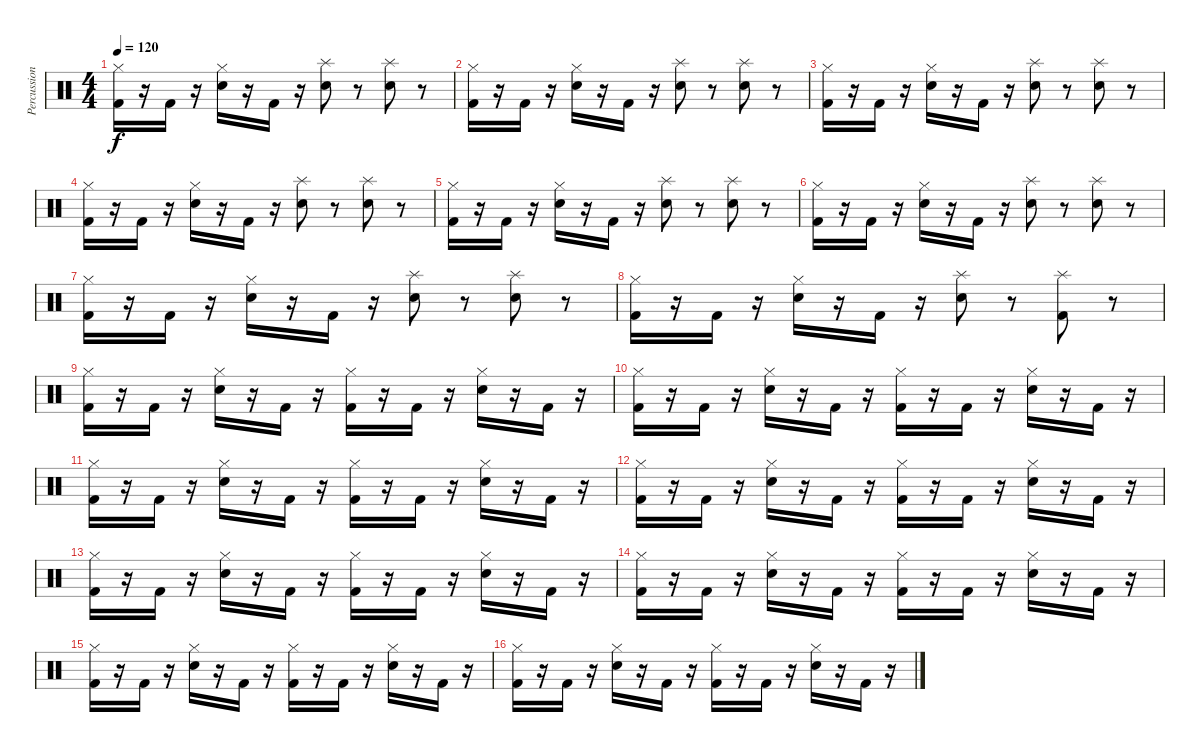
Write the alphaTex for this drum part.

\track ("Percussion" "Percussion") {instrument percussion}
\staff {score}
\articulation defaults
\ts (4 4)
\tempo 120
\clef neutral
\ks c
("Kick (hit) 2" "Hi-Hat (closed)").16{dy f} r.16 "Kick (hit) 2".16 r.16 ("Snare (hit) 2" "Hi-Hat (closed)").16 r.16 "Kick (hit) 2".16 r.16 ("Snare (hit) 2" "Splash (hit)").8 r.8 ("Snare (hit) 2" "Splash (hit)").8 r.8 |
("Kick (hit) 2" "Hi-Hat (closed)").16 r.16 "Kick (hit) 2".16 r.16 ("Snare (hit) 2" "Hi-Hat (closed)").16 r.16 "Kick (hit) 2".16 r.16 ("Snare (hit) 2" "Splash (hit)").8 r.8 ("Snare (hit) 2" "Splash (hit)").8 r.8 |
("Kick (hit) 2" "Hi-Hat (closed)").16 r.16 "Kick (hit) 2".16 r.16 ("Snare (hit) 2" "Hi-Hat (closed)").16 r.16 "Kick (hit) 2".16 r.16 ("Snare (hit) 2" "Splash (hit)").8 r.8 ("Snare (hit) 2" "Splash (hit)").8 r.8 |
("Kick (hit) 2" "Hi-Hat (closed)").16 r.16 "Kick (hit) 2".16 r.16 ("Snare (hit) 2" "Hi-Hat (closed)").16 r.16 "Kick (hit) 2".16 r.16 ("Snare (hit) 2" "Splash (hit)").8 r.8 ("Snare (hit) 2" "Splash (hit)").8 r.8 |
("Kick (hit) 2" "Hi-Hat (closed)").16 r.16 "Kick (hit) 2".16 r.16 ("Snare (hit) 2" "Hi-Hat (closed)").16 r.16 "Kick (hit) 2".16 r.16 ("Snare (hit) 2" "Splash (hit)").8 r.8 ("Snare (hit) 2" "Splash (hit)").8 r.8 |
("Kick (hit) 2" "Hi-Hat (closed)").16 r.16 "Kick (hit) 2".16 r.16 ("Snare (hit) 2" "Hi-Hat (closed)").16 r.16 "Kick (hit) 2".16 r.16 ("Snare (hit) 2" "Splash (hit)").8 r.8 ("Snare (hit) 2" "Splash (hit)").8 r.8 |
("Kick (hit) 2" "Hi-Hat (closed)").16 r.16 "Kick (hit) 2".16 r.16 ("Snare (hit) 2" "Hi-Hat (closed)").16 r.16 "Kick (hit) 2".16 r.16 ("Snare (hit) 2" "Splash (hit)").8 r.8 ("Snare (hit) 2" "Splash (hit)").8 r.8 |
("Kick (hit) 2" "Hi-Hat (closed)").16 r.16 "Kick (hit) 2".16 r.16 ("Snare (hit) 2" "Hi-Hat (closed)").16 r.16 "Kick (hit) 2".16 r.16 ("Snare (hit) 2" "Splash (hit)").8 r.8 ("Kick (hit) 2" "Splash (hit)").8 r.8 |
("Kick (hit) 2" "Hi-Hat (closed)").16 r.16 "Kick (hit) 2".16 r.16 ("Snare (hit) 2" "Hi-Hat (closed)").16 r.16 "Kick (hit) 2".16 r.16 ("Kick (hit) 2" "Hi-Hat (closed)").16 r.16 "Kick (hit) 2".16 r.16 ("Snare (hit) 2" "Hi-Hat (closed)").16 r.16 "Kick (hit) 2".16 r.16 |
("Kick (hit) 2" "Hi-Hat (closed)").16 r.16 "Kick (hit) 2".16 r.16 ("Snare (hit) 2" "Hi-Hat (closed)").16 r.16 "Kick (hit) 2".16 r.16 ("Kick (hit) 2" "Hi-Hat (closed)").16 r.16 "Kick (hit) 2".16 r.16 ("Snare (hit) 2" "Hi-Hat (closed)").16 r.16 "Kick (hit) 2".16 r.16 |
("Kick (hit) 2" "Hi-Hat (closed)").16 r.16 "Kick (hit) 2".16 r.16 ("Snare (hit) 2" "Hi-Hat (closed)").16 r.16 "Kick (hit) 2".16 r.16 ("Kick (hit) 2" "Hi-Hat (closed)").16 r.16 "Kick (hit) 2".16 r.16 ("Snare (hit) 2" "Hi-Hat (closed)").16 r.16 "Kick (hit) 2".16 r.16 |
("Kick (hit) 2" "Hi-Hat (closed)").16 r.16 "Kick (hit) 2".16 r.16 ("Snare (hit) 2" "Hi-Hat (closed)").16 r.16 "Kick (hit) 2".16 r.16 ("Kick (hit) 2" "Hi-Hat (closed)").16 r.16 "Kick (hit) 2".16 r.16 ("Snare (hit) 2" "Hi-Hat (closed)").16 r.16 "Kick (hit) 2".16 r.16 |
("Kick (hit) 2" "Hi-Hat (closed)").16 r.16 "Kick (hit) 2".16 r.16 ("Snare (hit) 2" "Hi-Hat (closed)").16 r.16 "Kick (hit) 2".16 r.16 ("Kick (hit) 2" "Hi-Hat (closed)").16 r.16 "Kick (hit) 2".16 r.16 ("Snare (hit) 2" "Hi-Hat (closed)").16 r.16 "Kick (hit) 2".16 r.16 |
("Kick (hit) 2" "Hi-Hat (closed)").16 r.16 "Kick (hit) 2".16 r.16 ("Snare (hit) 2" "Hi-Hat (closed)").16 r.16 "Kick (hit) 2".16 r.16 ("Kick (hit) 2" "Hi-Hat (closed)").16 r.16 "Kick (hit) 2".16 r.16 ("Snare (hit) 2" "Hi-Hat (closed)").16 r.16 "Kick (hit) 2".16 r.16 |
("Kick (hit) 2" "Hi-Hat (closed)").16 r.16 "Kick (hit) 2".16 r.16 ("Snare (hit) 2" "Hi-Hat (closed)").16 r.16 "Kick (hit) 2".16 r.16 ("Kick (hit) 2" "Hi-Hat (closed)").16 r.16 "Kick (hit) 2".16 r.16 ("Snare (hit) 2" "Hi-Hat (closed)").16 r.16 "Kick (hit) 2".16 r.16 |
("Kick (hit) 2" "Hi-Hat (closed)").16 r.16 "Kick (hit) 2".16 r.16 ("Snare (hit) 2" "Hi-Hat (closed)").16 r.16 "Kick (hit) 2".16 r.16 ("Kick (hit) 2" "Hi-Hat (closed)").16 r.16 "Kick (hit) 2".16 r.16 ("Snare (hit) 2" "Hi-Hat (closed)").16 r.16 "Kick (hit) 2".16 r.16
